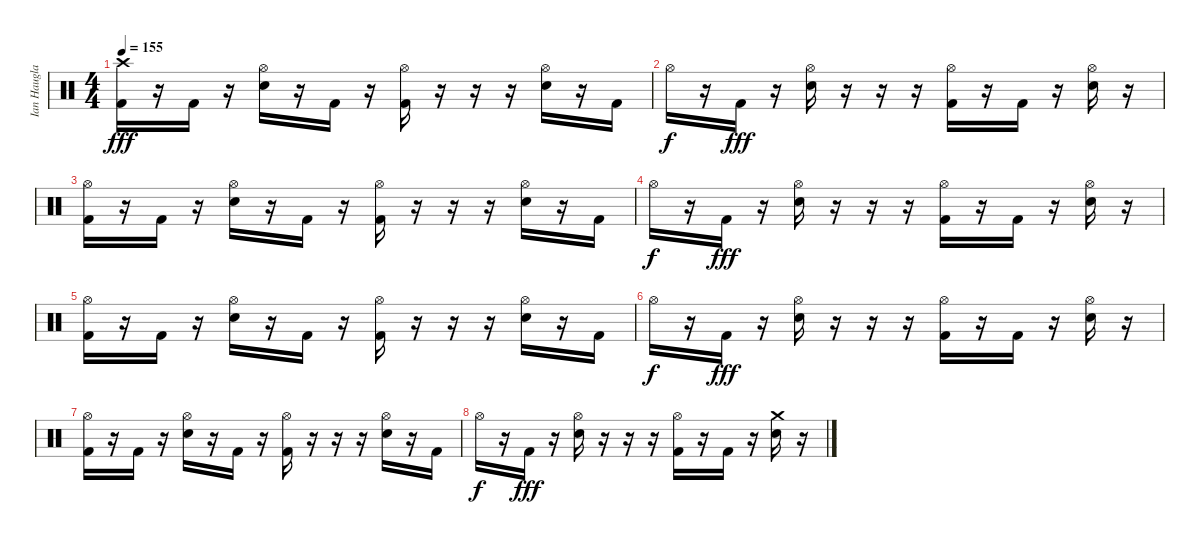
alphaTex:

\track ("Ian Haugland" "Ian Haugla") {instrument percussion}
\staff {score}
\articulation defaults
\ts (4 4)
\tempo 155
\clef neutral
\ks c
("Crash high (hit)" "Kick (hit) 2").16{dy fff} r.16 "Kick (hit) 2".16 r.16 ("Hi-Hat (open)" "Electric Snare (hit)").16 r.16 "Kick (hit) 2".16 r.16 ("Hi-Hat (open)" "Kick (hit) 2").16 r.16 r.16 r.16 ("Hi-Hat (open)" "Electric Snare (hit)").16 r.16 "Kick (hit) 2".16 |
"Hi-Hat (open)".16{dy f} r.16 "Kick (hit) 2".16{dy fff} r.16 ("Hi-Hat (open)" "Electric Snare (hit)").16 r.16 r.16 r.16 ("Hi-Hat (open)" "Kick (hit) 2").16 r.16 "Kick (hit) 2".16 r.16 ("Hi-Hat (open)" "Electric Snare (hit)").16 r.16 |
("Hi-Hat (open)" "Kick (hit) 2").16 r.16 "Kick (hit) 2".16 r.16 ("Hi-Hat (open)" "Electric Snare (hit)").16 r.16 "Kick (hit) 2".16 r.16 ("Hi-Hat (open)" "Kick (hit) 2").16 r.16 r.16 r.16 ("Hi-Hat (open)" "Electric Snare (hit)").16 r.16 "Kick (hit) 2".16 |
"Hi-Hat (open)".16{dy f} r.16 "Kick (hit) 2".16{dy fff} r.16 ("Hi-Hat (open)" "Electric Snare (hit)").16 r.16 r.16 r.16 ("Hi-Hat (open)" "Kick (hit) 2").16 r.16 "Kick (hit) 2".16 r.16 ("Hi-Hat (open)" "Electric Snare (hit)").16 r.16 |
("Hi-Hat (open)" "Kick (hit) 2").16 r.16 "Kick (hit) 2".16 r.16 ("Hi-Hat (open)" "Electric Snare (hit)").16 r.16 "Kick (hit) 2".16 r.16 ("Hi-Hat (open)" "Kick (hit) 2").16 r.16 r.16 r.16 ("Hi-Hat (open)" "Electric Snare (hit)").16 r.16 "Kick (hit) 2".16 |
"Hi-Hat (open)".16{dy f} r.16 "Kick (hit) 2".16{dy fff} r.16 ("Hi-Hat (open)" "Electric Snare (hit)").16 r.16 r.16 r.16 ("Hi-Hat (open)" "Kick (hit) 2").16 r.16 "Kick (hit) 2".16 r.16 ("Hi-Hat (open)" "Electric Snare (hit)").16 r.16 |
("Hi-Hat (open)" "Kick (hit) 2").16 r.16 "Kick (hit) 2".16 r.16 ("Hi-Hat (open)" "Electric Snare (hit)").16 r.16 "Kick (hit) 2".16 r.16 ("Hi-Hat (open)" "Kick (hit) 2").16 r.16 r.16 r.16 ("Hi-Hat (open)" "Electric Snare (hit)").16 r.16 "Kick (hit) 2".16 |
"Hi-Hat (open)".16{dy f} r.16 "Kick (hit) 2".16{dy fff} r.16 ("Hi-Hat (open)" "Electric Snare (hit)").16 r.16 r.16 r.16 ("Hi-Hat (open)" "Kick (hit) 2").16 r.16 "Kick (hit) 2".16 r.16 ("Crash medium (hit)" "Electric Snare (hit)").16 r.16
